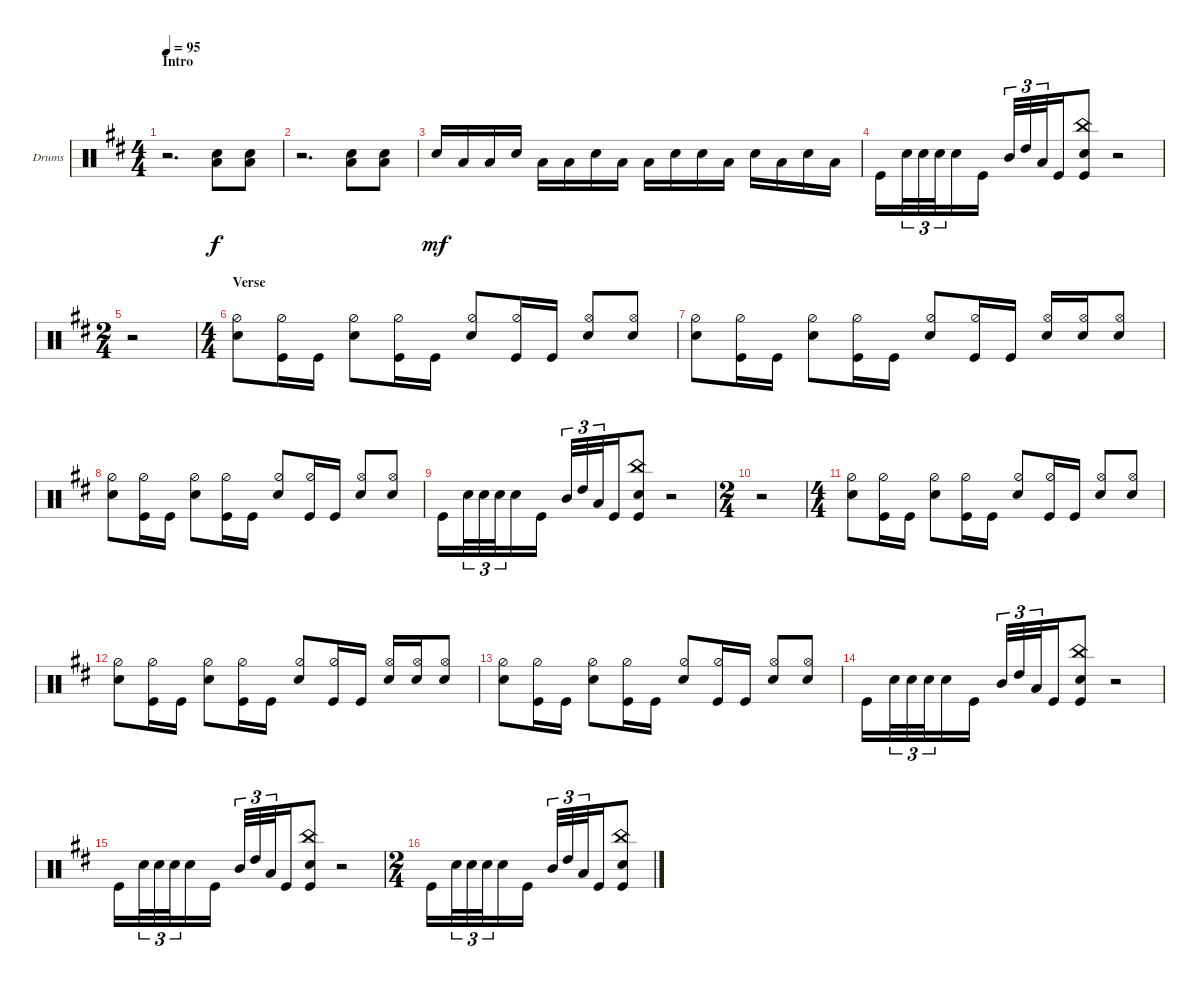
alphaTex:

\defaultSystemsLayout 4
\bracketExtendMode groupsimilarinstruments
\firstSystemTrackNameOrientation horizontal
\otherSystemsTrackNameOrientation horizontal
\track ("Drumkit" "Drums") {instrument percussion}
\staff {score}
\articulation defaults
\ts (4 4)
\section ("" "Intro")
\tempo 95
\clef neutral
\scale
0.517241
\ks d
r.2{d dy f} ("Low Tom (hit)" "Snare (hit) 2").8 ("Low Tom (hit)" "Snare (hit) 2").8 |
\scale
0.241379 r.2{d} ("Low Tom (hit)" "Snare (hit) 2").8 ("Low Tom (hit)" "Snare (hit) 2").8 |
\scale
0.241379 "Snare (hit) 2".16{dy mf beam invert} "Low Tom (hit)".16 "Low Tom (hit)".16 "Snare (hit) 2".16 "Low Tom (hit)".16 "Low Tom (hit)".16 "Snare (hit) 2".16 "Low Tom (hit)".16 "Low Tom (hit)".16 "Snare (hit) 2".16 "Snare (hit) 2".16 "Low Tom (hit)".16 "Snare (hit) 2".16 "Low Tom (hit)".16 "Snare (hit) 2".16 "Low Tom (hit)".16 |
\scale
0.526487 "Kick (hit)".16{beam merge} "Snare (hit) 2".32{tu (3 2) beam merge} "Snare (hit) 2".32{tu (3 2) beam merge} "Snare (hit) 2".32{tu (3 2) beam merge} "Snare (hit) 2".16{beam merge} "Kick (hit)".16 "Mid Tom (hit)".32{tu (3 2) beam invert beam merge} "High Tom (hit)".32{tu (3 2) beam merge} "Low Tom (hit)".32{tu (3 2) beam merge} "Kick (hit)".16{beam merge} ("Snare (hit) 2" "Kick (hit)" "China (hit)").8 r.2 |
\ts (2 4)
\scale
0.0685192 r.2 |
\ts (4 4)
\section ("" "Verse")
\scale
0.405405 ("Snare (hit) 2" "Hi-Hat (half)").8 ("Kick (hit)" "Hi-Hat (half)").16 "Kick (hit)".16 ("Snare (hit) 2" "Hi-Hat (half)").8 ("Kick (hit)" "Hi-Hat (half)").16 "Kick (hit)".16 ("Snare (hit) 2" "Hi-Hat (half)").8 ("Kick (hit)" "Hi-Hat (half)").16 "Kick (hit)".16 ("Snare (hit) 2" "Hi-Hat (open)").8{beam invert} ("Snare (hit) 2" "Hi-Hat (open)").8 |
\scale
0.333333 ("Snare (hit) 2" "Hi-Hat (half)").8 ("Kick (hit)" "Hi-Hat (half)").16 "Kick (hit)".16 ("Snare (hit) 2" "Hi-Hat (half)").8 ("Kick (hit)" "Hi-Hat (half)").16 "Kick (hit)".16 ("Snare (hit) 2" "Hi-Hat (half)").8 ("Kick (hit)" "Hi-Hat (half)").16 "Kick (hit)".16 ("Snare (hit) 2" "Hi-Hat (open)").16{beam invert} ("Snare (hit) 2" "Hi-Hat (open)").16 ("Snare (hit) 2" "Hi-Hat (open)").8 |
\scale
0.333333 ("Snare (hit) 2" "Hi-Hat (half)").8 ("Kick (hit)" "Hi-Hat (half)").16 "Kick (hit)".16 ("Snare (hit) 2" "Hi-Hat (half)").8 ("Kick (hit)" "Hi-Hat (half)").16 "Kick (hit)".16 ("Snare (hit) 2" "Hi-Hat (half)").8 ("Kick (hit)" "Hi-Hat (half)").16 "Kick (hit)".16 ("Snare (hit) 2" "Hi-Hat (open)").8{beam invert} ("Snare (hit) 2" "Hi-Hat (open)").8 |
\scale
0.333333 "Kick (hit)".16{beam merge} "Snare (hit) 2".32{tu (3 2) beam merge} "Snare (hit) 2".32{tu (3 2) beam merge} "Snare (hit) 2".32{tu (3 2) beam merge} "Snare (hit) 2".16{beam merge} "Kick (hit)".16 "Mid Tom (hit)".32{tu (3 2) beam invert beam merge} "High Tom (hit)".32{tu (3 2) beam merge} "Low Tom (hit)".32{tu (3 2) beam merge} "Kick (hit)".16{beam merge} ("Snare (hit) 2" "Kick (hit)" "China (hit)").8 r.2 |
\ts (2 4)
\scale
0.405405 r.2 |
\ts (4 4)
\scale
0.405405 ("Snare (hit) 2" "Hi-Hat (half)").8 ("Kick (hit)" "Hi-Hat (half)").16 "Kick (hit)".16 ("Snare (hit) 2" "Hi-Hat (half)").8 ("Kick (hit)" "Hi-Hat (half)").16 "Kick (hit)".16 ("Snare (hit) 2" "Hi-Hat (half)").8 ("Kick (hit)" "Hi-Hat (half)").16 "Kick (hit)".16 ("Snare (hit) 2" "Hi-Hat (open)").8{beam invert} ("Snare (hit) 2" "Hi-Hat (open)").8 |
\scale
0.189189 ("Snare (hit) 2" "Hi-Hat (half)").8 ("Kick (hit)" "Hi-Hat (half)").16 "Kick (hit)".16 ("Snare (hit) 2" "Hi-Hat (half)").8 ("Kick (hit)" "Hi-Hat (half)").16 "Kick (hit)".16 ("Snare (hit) 2" "Hi-Hat (half)").8 ("Kick (hit)" "Hi-Hat (half)").16 "Kick (hit)".16 ("Snare (hit) 2" "Hi-Hat (open)").16{beam invert} ("Snare (hit) 2" "Hi-Hat (open)").16 ("Snare (hit) 2" "Hi-Hat (open)").8 |
\scale
0.333333 ("Snare (hit) 2" "Hi-Hat (half)").8 ("Kick (hit)" "Hi-Hat (half)").16 "Kick (hit)".16 ("Snare (hit) 2" "Hi-Hat (half)").8 ("Kick (hit)" "Hi-Hat (half)").16 "Kick (hit)".16 ("Snare (hit) 2" "Hi-Hat (half)").8 ("Kick (hit)" "Hi-Hat (half)").16 "Kick (hit)".16 ("Snare (hit) 2" "Hi-Hat (open)").8{beam invert} ("Snare (hit) 2" "Hi-Hat (open)").8 |
\scale
0.333333 "Kick (hit)".16{beam merge} "Snare (hit) 2".32{tu (3 2) beam merge} "Snare (hit) 2".32{tu (3 2) beam merge} "Snare (hit) 2".32{tu (3 2) beam merge} "Snare (hit) 2".16{beam merge} "Kick (hit)".16 "Mid Tom (hit)".32{tu (3 2) beam invert beam merge} "High Tom (hit)".32{tu (3 2) beam merge} "Low Tom (hit)".32{tu (3 2) beam merge} "Kick (hit)".16{beam merge} ("Snare (hit) 2" "Kick (hit)" "China (hit)").8 r.2 |
\scale
0.333333 "Kick (hit)".16{beam merge} "Snare (hit) 2".32{tu (3 2) beam merge} "Snare (hit) 2".32{tu (3 2) beam merge} "Snare (hit) 2".32{tu (3 2) beam merge} "Snare (hit) 2".16{beam merge} "Kick (hit)".16 "Mid Tom (hit)".32{tu (3 2) beam invert beam merge} "High Tom (hit)".32{tu (3 2) beam merge} "Low Tom (hit)".32{tu (3 2) beam merge} "Kick (hit)".16{beam merge} ("Snare (hit) 2" "Kick (hit)" "China (hit)").8 r.2 |
\ts (2 4)
\scale
0.405405 "Kick (hit)".16{beam merge} "Snare (hit) 2".32{tu (3 2) beam merge} "Snare (hit) 2".32{tu (3 2) beam merge} "Snare (hit) 2".32{tu (3 2) beam merge} "Snare (hit) 2".16{beam merge} "Kick (hit)".16 "Mid Tom (hit)".32{tu (3 2) beam invert beam merge} "High Tom (hit)".32{tu (3 2) beam merge} "Low Tom (hit)".32{tu (3 2) beam merge} "Kick (hit)".16{beam merge} ("Snare (hit) 2" "Kick (hit)" "China (hit)").8
